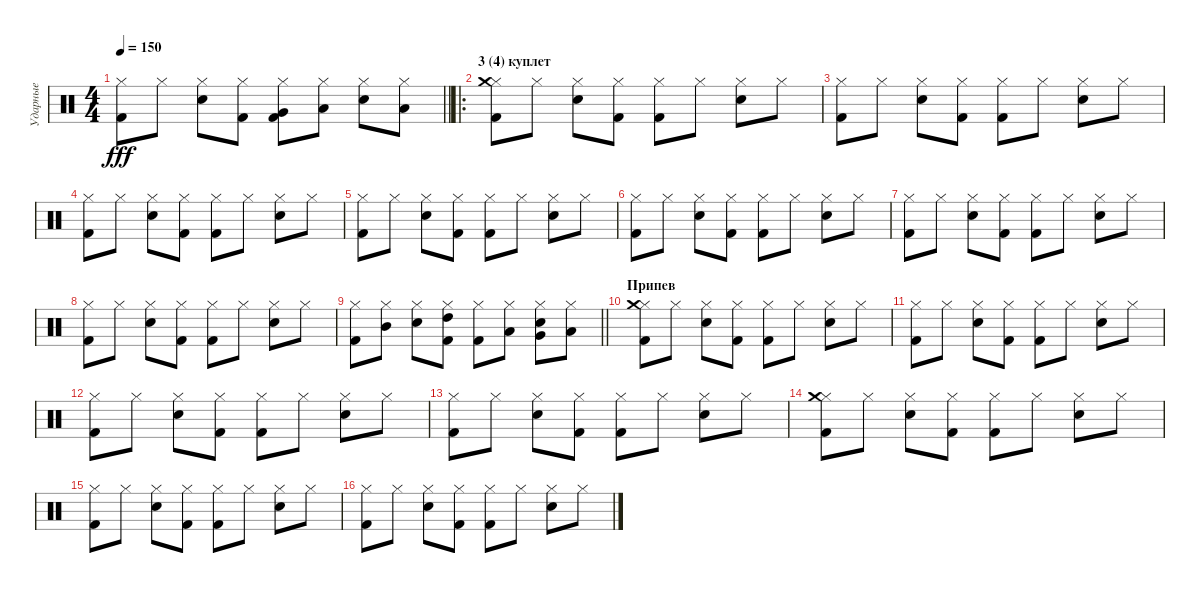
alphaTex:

\track ("Ударные" "Ударные") {instrument percussion}
\staff {score}
\articulation defaults
\ts (4 4)
\tempo 150
\clef neutral
\barLineRight lightlight
\ks c
("Kick (hit) 2" "Hi-Hat (closed)").8{dy fff} "Hi-Hat (closed)".8 ("Electric Snare (hit)" "Hi-Hat (closed)").8 ("Kick (hit) 2" "Hi-Hat (closed)").8 ("Hi-Hat (closed)" "Kick (hit) 2" "Very Low Tom (hit)").8 ("Hi-Hat (closed)" "Low Tom (hit)").8 ("Electric Snare (hit)" "Hi-Hat (closed)").8 ("Hi-Hat (closed)" "Low Floor Tom (hit)").8 |
\ro
\section ("" "3 (4) куплет")
("Kick (hit) 2" "Hi-Hat (closed)" "Crash medium (hit)").8 "Hi-Hat (closed)".8 ("Electric Snare (hit)" "Hi-Hat (closed)").8 ("Kick (hit) 2" "Hi-Hat (closed)").8 ("Hi-Hat (closed)" "Kick (hit) 2").8 "Hi-Hat (closed)".8 ("Hi-Hat (closed)" "Electric Snare (hit)").8 "Hi-Hat (closed)".8 |
("Kick (hit) 2" "Hi-Hat (closed)").8 "Hi-Hat (closed)".8 ("Electric Snare (hit)" "Hi-Hat (closed)").8 ("Kick (hit) 2" "Hi-Hat (closed)").8 ("Hi-Hat (closed)" "Kick (hit) 2").8 "Hi-Hat (closed)".8 ("Hi-Hat (closed)" "Electric Snare (hit)").8 "Hi-Hat (closed)".8 |
("Kick (hit) 2" "Hi-Hat (closed)").8 "Hi-Hat (closed)".8 ("Electric Snare (hit)" "Hi-Hat (closed)").8 ("Kick (hit) 2" "Hi-Hat (closed)").8 ("Hi-Hat (closed)" "Kick (hit) 2").8 "Hi-Hat (closed)".8 ("Hi-Hat (closed)" "Electric Snare (hit)").8 "Hi-Hat (closed)".8 |
("Kick (hit) 2" "Hi-Hat (closed)").8 "Hi-Hat (closed)".8 ("Electric Snare (hit)" "Hi-Hat (closed)").8 ("Kick (hit) 2" "Hi-Hat (closed)").8 ("Hi-Hat (closed)" "Kick (hit) 2").8 "Hi-Hat (closed)".8 ("Hi-Hat (closed)" "Electric Snare (hit)").8 "Hi-Hat (closed)".8 |
("Kick (hit) 2" "Hi-Hat (closed)").8 "Hi-Hat (closed)".8 ("Electric Snare (hit)" "Hi-Hat (closed)").8 ("Kick (hit) 2" "Hi-Hat (closed)").8 ("Hi-Hat (closed)" "Kick (hit) 2").8 "Hi-Hat (closed)".8 ("Hi-Hat (closed)" "Electric Snare (hit)").8 "Hi-Hat (closed)".8 |
("Kick (hit) 2" "Hi-Hat (closed)").8 "Hi-Hat (closed)".8 ("Electric Snare (hit)" "Hi-Hat (closed)").8 ("Kick (hit) 2" "Hi-Hat (closed)").8 ("Hi-Hat (closed)" "Kick (hit) 2").8 "Hi-Hat (closed)".8 ("Hi-Hat (closed)" "Electric Snare (hit)").8 "Hi-Hat (closed)".8 |
("Kick (hit) 2" "Hi-Hat (closed)").8 "Hi-Hat (closed)".8 ("Electric Snare (hit)" "Hi-Hat (closed)").8 ("Kick (hit) 2" "Hi-Hat (closed)").8 ("Hi-Hat (closed)" "Kick (hit) 2").8 "Hi-Hat (closed)".8 ("Hi-Hat (closed)" "Electric Snare (hit)").8 "Hi-Hat (closed)".8 |
\barLineRight lightlight
("Kick (hit) 2" "Hi-Hat (closed)").8 ("Hi-Hat (closed)" "Mid Tom (hit)").8 ("Electric Snare (hit)" "Hi-Hat (closed)").8 ("Kick (hit) 2" "Hi-Hat (closed)" "High Tom (hit)").8 ("Hi-Hat (closed)" "Kick (hit) 2").8 ("Hi-Hat (closed)" "Low Tom (hit)").8 ("Hi-Hat (closed)" "Electric Snare (hit)" "Very Low Tom (hit)").8 ("Hi-Hat (closed)" "Low Floor Tom (hit)").8 |
\section ("" "Припев")
("Kick (hit) 2" "Hi-Hat (closed)" "Crash medium (hit)").8 "Hi-Hat (closed)".8 ("Electric Snare (hit)" "Hi-Hat (closed)").8 ("Kick (hit) 2" "Hi-Hat (closed)").8 ("Hi-Hat (closed)" "Kick (hit) 2").8 "Hi-Hat (closed)".8 ("Hi-Hat (closed)" "Electric Snare (hit)").8 "Hi-Hat (closed)".8 |
("Kick (hit) 2" "Hi-Hat (closed)").8 "Hi-Hat (closed)".8 ("Electric Snare (hit)" "Hi-Hat (closed)").8 ("Kick (hit) 2" "Hi-Hat (closed)").8 ("Hi-Hat (closed)" "Kick (hit) 2").8 "Hi-Hat (closed)".8 ("Hi-Hat (closed)" "Electric Snare (hit)").8 "Hi-Hat (closed)".8 |
("Kick (hit) 2" "Hi-Hat (closed)").8 "Hi-Hat (closed)".8 ("Electric Snare (hit)" "Hi-Hat (closed)").8 ("Kick (hit) 2" "Hi-Hat (closed)").8 ("Hi-Hat (closed)" "Kick (hit) 2").8 "Hi-Hat (closed)".8 ("Hi-Hat (closed)" "Electric Snare (hit)").8 "Hi-Hat (closed)".8 |
("Kick (hit) 2" "Hi-Hat (closed)").8 "Hi-Hat (closed)".8 ("Electric Snare (hit)" "Hi-Hat (closed)").8 ("Kick (hit) 2" "Hi-Hat (closed)").8 ("Hi-Hat (closed)" "Kick (hit) 2").8 "Hi-Hat (closed)".8 ("Hi-Hat (closed)" "Electric Snare (hit)").8 "Hi-Hat (closed)".8 |
("Kick (hit) 2" "Hi-Hat (closed)" "Crash medium (hit)").8 "Hi-Hat (closed)".8 ("Electric Snare (hit)" "Hi-Hat (closed)").8 ("Kick (hit) 2" "Hi-Hat (closed)").8 ("Hi-Hat (closed)" "Kick (hit) 2").8 "Hi-Hat (closed)".8 ("Hi-Hat (closed)" "Electric Snare (hit)").8 "Hi-Hat (closed)".8 |
("Kick (hit) 2" "Hi-Hat (closed)").8 "Hi-Hat (closed)".8 ("Electric Snare (hit)" "Hi-Hat (closed)").8 ("Kick (hit) 2" "Hi-Hat (closed)").8 ("Hi-Hat (closed)" "Kick (hit) 2").8 "Hi-Hat (closed)".8 ("Hi-Hat (closed)" "Electric Snare (hit)").8 "Hi-Hat (closed)".8 |
("Kick (hit) 2" "Hi-Hat (closed)").8 "Hi-Hat (closed)".8 ("Electric Snare (hit)" "Hi-Hat (closed)").8 ("Kick (hit) 2" "Hi-Hat (closed)").8 ("Hi-Hat (closed)" "Kick (hit) 2").8 "Hi-Hat (closed)".8 ("Hi-Hat (closed)" "Electric Snare (hit)").8 "Hi-Hat (closed)".8
